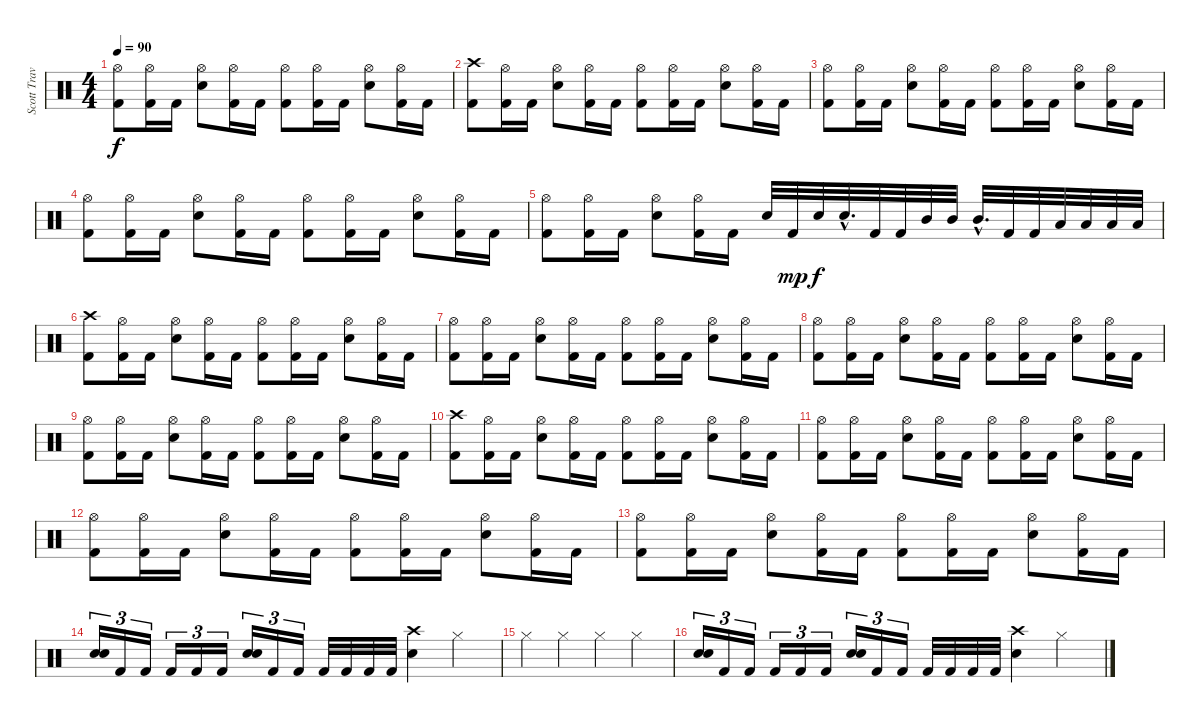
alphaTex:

\track ("Scott Travis" "Scott Trav") {instrument percussion}
\staff {score}
\articulation defaults
\ts (4 4)
\tempo 90
\clef neutral
\ks c
("Kick (hit) 2" "Hi-Hat (open)").8{dy f} ("Kick (hit) 2" "Hi-Hat (open)").16 "Kick (hit) 2".16 ("Electric Snare (hit)" "Hi-Hat (open)").8 ("Kick (hit) 2" "Hi-Hat (open)").16 "Kick (hit) 2".16 ("Kick (hit) 2" "Hi-Hat (open)").8 ("Kick (hit) 2" "Hi-Hat (open)").16 "Kick (hit) 2".16 ("Electric Snare (hit)" "Hi-Hat (open)").8 ("Kick (hit) 2" "Hi-Hat (open)").16 "Kick (hit) 2".16 |
("Kick (hit) 2" "Crash high (hit)").8 ("Kick (hit) 2" "Hi-Hat (open)").16 "Kick (hit) 2".16 ("Electric Snare (hit)" "Hi-Hat (open)").8 ("Kick (hit) 2" "Hi-Hat (open)").16 "Kick (hit) 2".16 ("Kick (hit) 2" "Hi-Hat (open)").8 ("Kick (hit) 2" "Hi-Hat (open)").16 "Kick (hit) 2".16 ("Electric Snare (hit)" "Hi-Hat (open)").8 ("Kick (hit) 2" "Hi-Hat (open)").16 "Kick (hit) 2".16 |
("Kick (hit) 2" "Hi-Hat (open)").8 ("Kick (hit) 2" "Hi-Hat (open)").16 "Kick (hit) 2".16 ("Electric Snare (hit)" "Hi-Hat (open)").8 ("Kick (hit) 2" "Hi-Hat (open)").16 "Kick (hit) 2".16 ("Kick (hit) 2" "Hi-Hat (open)").8 ("Kick (hit) 2" "Hi-Hat (open)").16 "Kick (hit) 2".16 ("Electric Snare (hit)" "Hi-Hat (open)").8 ("Kick (hit) 2" "Hi-Hat (open)").16 "Kick (hit) 2".16 |
("Kick (hit) 2" "Hi-Hat (open)").8 ("Kick (hit) 2" "Hi-Hat (open)").16 "Kick (hit) 2".16 ("Electric Snare (hit)" "Hi-Hat (open)").8 ("Kick (hit) 2" "Hi-Hat (open)").16 "Kick (hit) 2".16 ("Kick (hit) 2" "Hi-Hat (open)").8 ("Kick (hit) 2" "Hi-Hat (open)").16 "Kick (hit) 2".16 ("Electric Snare (hit)" "Hi-Hat (open)").8 ("Kick (hit) 2" "Hi-Hat (open)").16 "Kick (hit) 2".16 |
("Kick (hit) 2" "Hi-Hat (open)").8 ("Kick (hit) 2" "Hi-Hat (open)").16 "Kick (hit) 2".16 ("Electric Snare (hit)" "Hi-Hat (open)").8 ("Kick (hit) 2" "Hi-Hat (open)").16 "Kick (hit) 2".16 "Electric Snare (hit)".32 "Kick (hit) 2".32{dy mp} "Electric Snare (hit)".32{dy f} "Electric Snare (hit)"{hac}.32{d} "Kick (hit) 2".32 "Kick (hit) 2".32 "Mid Tom (hit)".32 "Mid Tom (hit)".32 "Mid Tom (hit)"{hac}.32{d} "Kick (hit) 2".32 "Kick (hit) 2".32 "Low Tom (hit)".32 "Low Tom (hit)".32 "Low Tom (hit)".32 "Low Tom (hit)".32 |
("Kick (hit) 2" "Crash high (hit)").8 ("Kick (hit) 2" "Hi-Hat (open)").16 "Kick (hit) 2".16 ("Electric Snare (hit)" "Hi-Hat (open)").8 ("Kick (hit) 2" "Hi-Hat (open)").16 "Kick (hit) 2".16 ("Kick (hit) 2" "Hi-Hat (open)").8 ("Kick (hit) 2" "Hi-Hat (open)").16 "Kick (hit) 2".16 ("Electric Snare (hit)" "Hi-Hat (open)").8 ("Kick (hit) 2" "Hi-Hat (open)").16 "Kick (hit) 2".16 |
("Kick (hit) 2" "Hi-Hat (open)").8 ("Kick (hit) 2" "Hi-Hat (open)").16 "Kick (hit) 2".16 ("Electric Snare (hit)" "Hi-Hat (open)").8 ("Kick (hit) 2" "Hi-Hat (open)").16 "Kick (hit) 2".16 ("Kick (hit) 2" "Hi-Hat (open)").8 ("Kick (hit) 2" "Hi-Hat (open)").16 "Kick (hit) 2".16 ("Electric Snare (hit)" "Hi-Hat (open)").8 ("Kick (hit) 2" "Hi-Hat (open)").16 "Kick (hit) 2".16 |
("Kick (hit) 2" "Hi-Hat (open)").8 ("Kick (hit) 2" "Hi-Hat (open)").16 "Kick (hit) 2".16 ("Electric Snare (hit)" "Hi-Hat (open)").8 ("Kick (hit) 2" "Hi-Hat (open)").16 "Kick (hit) 2".16 ("Kick (hit) 2" "Hi-Hat (open)").8 ("Kick (hit) 2" "Hi-Hat (open)").16 "Kick (hit) 2".16 ("Electric Snare (hit)" "Hi-Hat (open)").8 ("Kick (hit) 2" "Hi-Hat (open)").16 "Kick (hit) 2".16 |
("Kick (hit) 2" "Hi-Hat (open)").8 ("Kick (hit) 2" "Hi-Hat (open)").16 "Kick (hit) 2".16 ("Electric Snare (hit)" "Hi-Hat (open)").8 ("Kick (hit) 2" "Hi-Hat (open)").16 "Kick (hit) 2".16 ("Kick (hit) 2" "Hi-Hat (open)").8 ("Kick (hit) 2" "Hi-Hat (open)").16 "Kick (hit) 2".16 ("Electric Snare (hit)" "Hi-Hat (open)").8 ("Kick (hit) 2" "Hi-Hat (open)").16 "Kick (hit) 2".16 |
("Kick (hit) 2" "Crash high (hit)").8 ("Kick (hit) 2" "Hi-Hat (open)").16 "Kick (hit) 2".16 ("Electric Snare (hit)" "Hi-Hat (open)").8 ("Kick (hit) 2" "Hi-Hat (open)").16 "Kick (hit) 2".16 ("Kick (hit) 2" "Hi-Hat (open)").8 ("Kick (hit) 2" "Hi-Hat (open)").16 "Kick (hit) 2".16 ("Electric Snare (hit)" "Hi-Hat (open)").8 ("Kick (hit) 2" "Hi-Hat (open)").16 "Kick (hit) 2".16 |
("Kick (hit) 2" "Hi-Hat (open)").8 ("Kick (hit) 2" "Hi-Hat (open)").16 "Kick (hit) 2".16 ("Electric Snare (hit)" "Hi-Hat (open)").8 ("Kick (hit) 2" "Hi-Hat (open)").16 "Kick (hit) 2".16 ("Kick (hit) 2" "Hi-Hat (open)").8 ("Kick (hit) 2" "Hi-Hat (open)").16 "Kick (hit) 2".16 ("Electric Snare (hit)" "Hi-Hat (open)").8 ("Kick (hit) 2" "Hi-Hat (open)").16 "Kick (hit) 2".16 |
("Kick (hit) 2" "Hi-Hat (open)").8 ("Kick (hit) 2" "Hi-Hat (open)").16 "Kick (hit) 2".16 ("Electric Snare (hit)" "Hi-Hat (open)").8 ("Kick (hit) 2" "Hi-Hat (open)").16 "Kick (hit) 2".16 ("Kick (hit) 2" "Hi-Hat (open)").8 ("Kick (hit) 2" "Hi-Hat (open)").16 "Kick (hit) 2".16 ("Electric Snare (hit)" "Hi-Hat (open)").8 ("Kick (hit) 2" "Hi-Hat (open)").16 "Kick (hit) 2".16 |
("Kick (hit) 2" "Hi-Hat (open)").8 ("Kick (hit) 2" "Hi-Hat (open)").16 "Kick (hit) 2".16 ("Electric Snare (hit)" "Hi-Hat (open)").8 ("Kick (hit) 2" "Hi-Hat (open)").16 "Kick (hit) 2".16 ("Kick (hit) 2" "Hi-Hat (open)").8 ("Kick (hit) 2" "Hi-Hat (open)").16 "Kick (hit) 2".16 ("Electric Snare (hit)" "Hi-Hat (open)").8 ("Kick (hit) 2" "Hi-Hat (open)").16 "Kick (hit) 2".16 |
("Electric Snare (hit)" "Electric Snare (hit)").16{tu (3 2)} "Kick (hit) 2".16{tu (3 2)} "Kick (hit) 2".16{tu (3 2)} "Kick (hit) 2".16{tu (3 2)} "Kick (hit) 2".16{tu (3 2)} "Kick (hit) 2".16{tu (3 2)} ("Electric Snare (hit)" "Electric Snare (hit)").16{tu (3 2)} "Kick (hit) 2".16{tu (3 2)} "Kick (hit) 2".16{tu (3 2)} "Kick (hit) 2".32 "Kick (hit) 2".32 "Kick (hit) 2".32 "Kick (hit) 2".32 ("Electric Snare (hit)" "Crash high (hit)").4 "Hi-Hat (closed)".4 |
"Hi-Hat (closed)".4 "Hi-Hat (closed)".4 "Hi-Hat (closed)".4 "Hi-Hat (closed)".4 |
("Electric Snare (hit)" "Electric Snare (hit)").16{tu (3 2)} "Kick (hit) 2".16{tu (3 2)} "Kick (hit) 2".16{tu (3 2)} "Kick (hit) 2".16{tu (3 2)} "Kick (hit) 2".16{tu (3 2)} "Kick (hit) 2".16{tu (3 2)} ("Electric Snare (hit)" "Electric Snare (hit)").16{tu (3 2)} "Kick (hit) 2".16{tu (3 2)} "Kick (hit) 2".16{tu (3 2)} "Kick (hit) 2".32 "Kick (hit) 2".32 "Kick (hit) 2".32 "Kick (hit) 2".32 ("Electric Snare (hit)" "Crash high (hit)").4 "Hi-Hat (closed)".4
